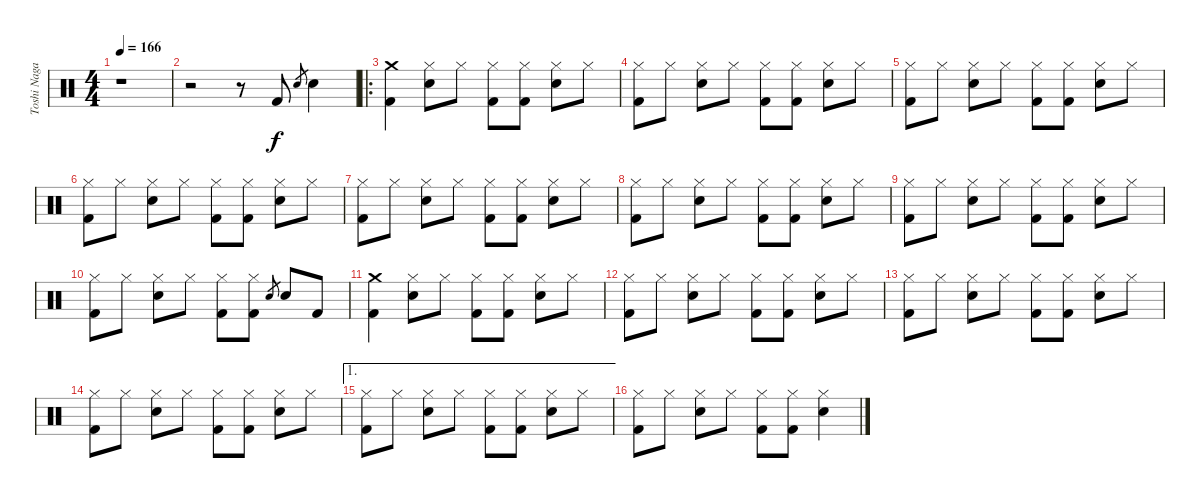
\track ("Toshi Nagai" "Toshi Naga") {instrument percussion}
\staff {score}
\articulation defaults
\ts (4 4)
\tempo 166
\clef neutral
\ks c
r.1{dy f} |
r.2 r.8 "Kick (hit) 2".8 "Electric Snare (hit)".8{gr} "Electric Snare (hit)".4 |
\ro
("Crash medium (hit)" "Kick (hit) 2").4 ("Hi-Hat (closed)" "Electric Snare (hit)").8 "Hi-Hat (closed)".8 ("Hi-Hat (closed)" "Kick (hit) 2").8 ("Hi-Hat (closed)" "Kick (hit) 2").8 ("Hi-Hat (closed)" "Electric Snare (hit)").8 "Hi-Hat (closed)".8 |
("Hi-Hat (closed)" "Kick (hit) 2").8 "Hi-Hat (closed)".8 ("Hi-Hat (closed)" "Electric Snare (hit)").8 "Hi-Hat (closed)".8 ("Hi-Hat (closed)" "Kick (hit) 2").8 ("Hi-Hat (closed)" "Kick (hit) 2").8 ("Hi-Hat (closed)" "Electric Snare (hit)").8 "Hi-Hat (closed)".8 |
("Hi-Hat (closed)" "Kick (hit) 2").8 "Hi-Hat (closed)".8 ("Hi-Hat (closed)" "Electric Snare (hit)").8 "Hi-Hat (closed)".8 ("Hi-Hat (closed)" "Kick (hit) 2").8 ("Hi-Hat (closed)" "Kick (hit) 2").8 ("Hi-Hat (closed)" "Electric Snare (hit)").8 "Hi-Hat (closed)".8 |
("Hi-Hat (closed)" "Kick (hit) 2").8 "Hi-Hat (closed)".8 ("Hi-Hat (closed)" "Electric Snare (hit)").8 "Hi-Hat (closed)".8 ("Hi-Hat (closed)" "Kick (hit) 2").8 ("Hi-Hat (closed)" "Kick (hit) 2").8 ("Hi-Hat (closed)" "Electric Snare (hit)").8 "Hi-Hat (closed)".8 |
("Hi-Hat (closed)" "Kick (hit) 2").8 "Hi-Hat (closed)".8 ("Hi-Hat (closed)" "Electric Snare (hit)").8 "Hi-Hat (closed)".8 ("Hi-Hat (closed)" "Kick (hit) 2").8 ("Hi-Hat (closed)" "Kick (hit) 2").8 ("Hi-Hat (closed)" "Electric Snare (hit)").8 "Hi-Hat (closed)".8 |
("Hi-Hat (closed)" "Kick (hit) 2").8 "Hi-Hat (closed)".8 ("Hi-Hat (closed)" "Electric Snare (hit)").8 "Hi-Hat (closed)".8 ("Hi-Hat (closed)" "Kick (hit) 2").8 ("Hi-Hat (closed)" "Kick (hit) 2").8 ("Hi-Hat (closed)" "Electric Snare (hit)").8 "Hi-Hat (closed)".8 |
("Hi-Hat (closed)" "Kick (hit) 2").8 "Hi-Hat (closed)".8 ("Hi-Hat (closed)" "Electric Snare (hit)").8 "Hi-Hat (closed)".8 ("Hi-Hat (closed)" "Kick (hit) 2").8 ("Hi-Hat (closed)" "Kick (hit) 2").8 ("Hi-Hat (closed)" "Electric Snare (hit)").8 "Hi-Hat (closed)".8 |
("Hi-Hat (closed)" "Kick (hit) 2").8 "Hi-Hat (closed)".8 ("Hi-Hat (closed)" "Electric Snare (hit)").8 "Hi-Hat (closed)".8 ("Hi-Hat (closed)" "Kick (hit) 2").8 ("Hi-Hat (closed)" "Kick (hit) 2").8 "Electric Snare (hit)".8{gr} "Electric Snare (hit)".8 "Kick (hit) 2".8 |
("Crash medium (hit)" "Kick (hit) 2").4 ("Hi-Hat (closed)" "Electric Snare (hit)").8 "Hi-Hat (closed)".8 ("Hi-Hat (closed)" "Kick (hit) 2").8 ("Hi-Hat (closed)" "Kick (hit) 2").8 ("Hi-Hat (closed)" "Electric Snare (hit)").8 "Hi-Hat (closed)".8 |
("Hi-Hat (closed)" "Kick (hit) 2").8 "Hi-Hat (closed)".8 ("Hi-Hat (closed)" "Electric Snare (hit)").8 "Hi-Hat (closed)".8 ("Hi-Hat (closed)" "Kick (hit) 2").8 ("Hi-Hat (closed)" "Kick (hit) 2").8 ("Hi-Hat (closed)" "Electric Snare (hit)").8 "Hi-Hat (closed)".8 |
("Hi-Hat (closed)" "Kick (hit) 2").8 "Hi-Hat (closed)".8 ("Hi-Hat (closed)" "Electric Snare (hit)").8 "Hi-Hat (closed)".8 ("Hi-Hat (closed)" "Kick (hit) 2").8 ("Hi-Hat (closed)" "Kick (hit) 2").8 ("Hi-Hat (closed)" "Electric Snare (hit)").8 "Hi-Hat (closed)".8 |
("Hi-Hat (closed)" "Kick (hit) 2").8 "Hi-Hat (closed)".8 ("Hi-Hat (closed)" "Electric Snare (hit)").8 "Hi-Hat (closed)".8 ("Hi-Hat (closed)" "Kick (hit) 2").8 ("Hi-Hat (closed)" "Kick (hit) 2").8 ("Hi-Hat (closed)" "Electric Snare (hit)").8 "Hi-Hat (closed)".8 |
\ae 1
("Hi-Hat (closed)" "Kick (hit) 2").8 "Hi-Hat (closed)".8 ("Hi-Hat (closed)" "Electric Snare (hit)").8 "Hi-Hat (closed)".8 ("Hi-Hat (closed)" "Kick (hit) 2").8 ("Hi-Hat (closed)" "Kick (hit) 2").8 ("Hi-Hat (closed)" "Electric Snare (hit)").8 "Hi-Hat (closed)".8 |
("Hi-Hat (closed)" "Kick (hit) 2").8 "Hi-Hat (closed)".8 ("Hi-Hat (closed)" "Electric Snare (hit)").8 "Hi-Hat (closed)".8 ("Hi-Hat (closed)" "Kick (hit) 2").8 ("Hi-Hat (closed)" "Kick (hit) 2").8 ("Hi-Hat (closed)" "Electric Snare (hit)").4
